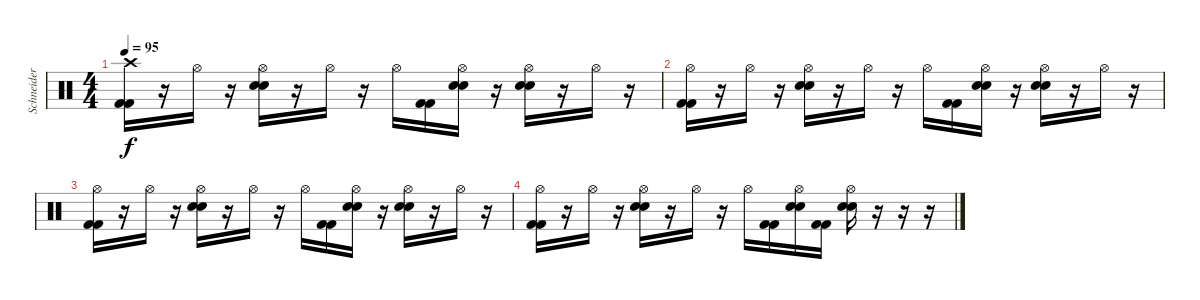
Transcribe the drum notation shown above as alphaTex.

\track ("Schneider" "Schneider") {instrument percussion}
\staff {score}
\articulation defaults
\ts (4 4)
\tempo 95
\clef neutral
\ks c
("Crash high (hit)" "Kick (hit) 2" "Kick (hit) 2").16{dy f} r.16 "Hi-Hat (open)".16 r.16 ("Hi-Hat (open)" "Electric Snare (hit)" "Electric Snare (hit)").16 r.16 "Hi-Hat (open)".16 r.16 "Hi-Hat (open)".16 ("Kick (hit) 2" "Kick (hit) 2").16 ("Hi-Hat (open)" "Electric Snare (hit)" "Electric Snare (hit)").16 r.16 ("Hi-Hat (open)" "Electric Snare (hit)" "Electric Snare (hit)").16 r.16 "Hi-Hat (open)".16 r.16 |
("Hi-Hat (open)" "Kick (hit) 2" "Kick (hit) 2").16 r.16 "Hi-Hat (open)".16 r.16 ("Hi-Hat (open)" "Electric Snare (hit)" "Electric Snare (hit)").16 r.16 "Hi-Hat (open)".16 r.16 "Hi-Hat (open)".16 ("Kick (hit) 2" "Kick (hit) 2").16 ("Hi-Hat (open)" "Electric Snare (hit)" "Electric Snare (hit)").16 r.16 ("Hi-Hat (open)" "Electric Snare (hit)" "Electric Snare (hit)").16 r.16 "Hi-Hat (open)".16 r.16 |
("Hi-Hat (open)" "Kick (hit) 2" "Kick (hit) 2").16 r.16 "Hi-Hat (open)".16 r.16 ("Hi-Hat (open)" "Electric Snare (hit)" "Electric Snare (hit)").16 r.16 "Hi-Hat (open)".16 r.16 "Hi-Hat (open)".16 ("Kick (hit) 2" "Kick (hit) 2").16 ("Hi-Hat (open)" "Electric Snare (hit)" "Electric Snare (hit)").16 r.16 ("Hi-Hat (open)" "Electric Snare (hit)" "Electric Snare (hit)").16 r.16 "Hi-Hat (open)".16 r.16 |
("Hi-Hat (open)" "Kick (hit) 2" "Kick (hit) 2").16 r.16 "Hi-Hat (open)".16 r.16 ("Hi-Hat (open)" "Electric Snare (hit)" "Electric Snare (hit)").16 r.16 "Hi-Hat (open)".16 r.16 "Hi-Hat (open)".16 ("Kick (hit) 2" "Kick (hit) 2").16 ("Hi-Hat (open)" "Electric Snare (hit)" "Electric Snare (hit)").16 ("Kick (hit) 2" "Kick (hit) 2").16 ("Hi-Hat (open)" "Electric Snare (hit)" "Electric Snare (hit)").16 r.16 r.16 r.16
